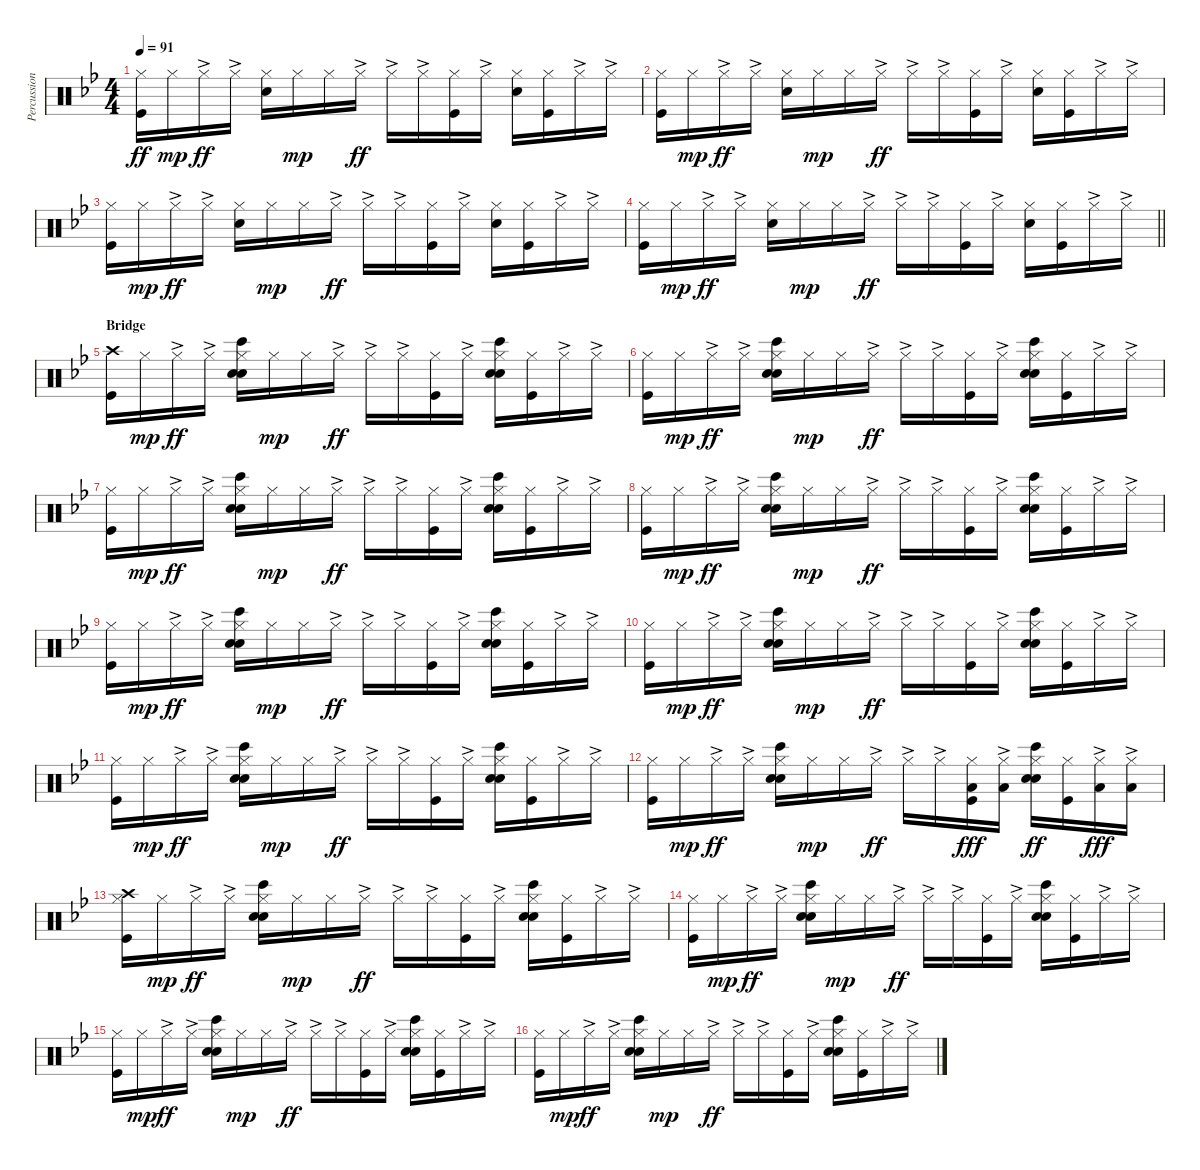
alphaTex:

\track ("Percussion" "Percussion") {instrument percussion}
\staff {score}
\articulation defaults
\ts (4 4)
\tempo 91
\clef neutral
\ks bb
("Hi-Hat (closed)" "Kick (hit)").16{dy ff} "Hi-Hat (closed)".16{dy mp} "Hi-Hat (closed)"{ac}.16{dy ff} "Hi-Hat (closed)"{ac}.16 ("Hi-Hat (closed)" "Snare (hit) 2").16 "Hi-Hat (closed)".16{dy mp} "Hi-Hat (closed)".16 "Hi-Hat (closed)"{ac}.16{dy ff} "Hi-Hat (closed)"{ac}.16 "Hi-Hat (closed)"{ac}.16 ("Hi-Hat (closed)" "Kick (hit)").16 "Hi-Hat (closed)"{ac}.16 ("Hi-Hat (closed)" "Snare (hit) 2").16 ("Hi-Hat (closed)" "Kick (hit)").16 "Hi-Hat (closed)"{ac}.16 "Hi-Hat (closed)"{ac}.16 |
("Hi-Hat (closed)" "Kick (hit)").16 "Hi-Hat (closed)".16{dy mp} "Hi-Hat (closed)"{ac}.16{dy ff} "Hi-Hat (closed)"{ac}.16 ("Hi-Hat (closed)" "Snare (hit) 2").16 "Hi-Hat (closed)".16{dy mp} "Hi-Hat (closed)".16 "Hi-Hat (closed)"{ac}.16{dy ff} "Hi-Hat (closed)"{ac}.16 "Hi-Hat (closed)"{ac}.16 ("Hi-Hat (closed)" "Kick (hit)").16 "Hi-Hat (closed)"{ac}.16 ("Hi-Hat (closed)" "Snare (hit) 2").16 ("Hi-Hat (closed)" "Kick (hit)").16 "Hi-Hat (closed)"{ac}.16 "Hi-Hat (closed)"{ac}.16 |
("Hi-Hat (closed)" "Kick (hit)").16 "Hi-Hat (closed)".16{dy mp} "Hi-Hat (closed)"{ac}.16{dy ff} "Hi-Hat (closed)"{ac}.16 ("Hi-Hat (closed)" "Snare (hit) 2").16 "Hi-Hat (closed)".16{dy mp} "Hi-Hat (closed)".16 "Hi-Hat (closed)"{ac}.16{dy ff} "Hi-Hat (closed)"{ac}.16 "Hi-Hat (closed)"{ac}.16 ("Hi-Hat (closed)" "Kick (hit)").16 "Hi-Hat (closed)"{ac}.16 ("Hi-Hat (closed)" "Snare (hit) 2").16 ("Hi-Hat (closed)" "Kick (hit)").16 "Hi-Hat (closed)"{ac}.16 "Hi-Hat (closed)"{ac}.16 |
\barLineRight lightlight
("Hi-Hat (closed)" "Kick (hit)").16 "Hi-Hat (closed)".16{dy mp} "Hi-Hat (closed)"{ac}.16{dy ff} "Hi-Hat (closed)"{ac}.16 ("Hi-Hat (closed)" "Snare (hit) 2").16 "Hi-Hat (closed)".16{dy mp} "Hi-Hat (closed)".16 "Hi-Hat (closed)"{ac}.16{dy ff} "Hi-Hat (closed)"{ac}.16 "Hi-Hat (closed)"{ac}.16 ("Hi-Hat (closed)" "Kick (hit)").16 "Hi-Hat (closed)"{ac}.16 ("Hi-Hat (closed)" "Snare (hit) 2").16 ("Hi-Hat (closed)" "Kick (hit)").16 "Hi-Hat (closed)"{ac}.16 "Hi-Hat (closed)"{ac}.16 |
\section ("" "Bridge")
("Crash high (hit)" "Kick (hit)").16 "Hi-Hat (closed)".16{dy mp} "Hi-Hat (closed)"{ac}.16{dy ff} "Hi-Hat (closed)"{ac}.16 ("Hi-Hat (closed)" "Snare (hit) 2" "Bongo High (hit)" "Hand Clap (hit)").16 "Hi-Hat (closed)".16{dy mp} "Hi-Hat (closed)".16 "Hi-Hat (closed)"{ac}.16{dy ff} "Hi-Hat (closed)"{ac}.16 "Hi-Hat (closed)"{ac}.16 ("Hi-Hat (closed)" "Kick (hit)").16 "Hi-Hat (closed)"{ac}.16 ("Hi-Hat (closed)" "Snare (hit) 2" "Bongo High (hit)" "Hand Clap (hit)").16 ("Hi-Hat (closed)" "Kick (hit)").16 "Hi-Hat (closed)"{ac}.16 "Hi-Hat (closed)"{ac}.16 |
("Hi-Hat (closed)" "Kick (hit)").16 "Hi-Hat (closed)".16{dy mp} "Hi-Hat (closed)"{ac}.16{dy ff} "Hi-Hat (closed)"{ac}.16 ("Hi-Hat (closed)" "Snare (hit) 2" "Bongo High (hit)" "Hand Clap (hit)").16 "Hi-Hat (closed)".16{dy mp} "Hi-Hat (closed)".16 "Hi-Hat (closed)"{ac}.16{dy ff} "Hi-Hat (closed)"{ac}.16 "Hi-Hat (closed)"{ac}.16 ("Hi-Hat (closed)" "Kick (hit)").16 "Hi-Hat (closed)"{ac}.16 ("Hi-Hat (closed)" "Snare (hit) 2" "Bongo High (hit)" "Hand Clap (hit)").16 ("Hi-Hat (closed)" "Kick (hit)").16 "Hi-Hat (closed)"{ac}.16 "Hi-Hat (closed)"{ac}.16 |
("Hi-Hat (closed)" "Kick (hit)").16 "Hi-Hat (closed)".16{dy mp} "Hi-Hat (closed)"{ac}.16{dy ff} "Hi-Hat (closed)"{ac}.16 ("Hi-Hat (closed)" "Snare (hit) 2" "Bongo High (hit)" "Hand Clap (hit)").16 "Hi-Hat (closed)".16{dy mp} "Hi-Hat (closed)".16 "Hi-Hat (closed)"{ac}.16{dy ff} "Hi-Hat (closed)"{ac}.16 "Hi-Hat (closed)"{ac}.16 ("Hi-Hat (closed)" "Kick (hit)").16 "Hi-Hat (closed)"{ac}.16 ("Hi-Hat (closed)" "Snare (hit) 2" "Bongo High (hit)" "Hand Clap (hit)").16 ("Hi-Hat (closed)" "Kick (hit)").16 "Hi-Hat (closed)"{ac}.16 "Hi-Hat (closed)"{ac}.16 |
("Hi-Hat (closed)" "Kick (hit)").16 "Hi-Hat (closed)".16{dy mp} "Hi-Hat (closed)"{ac}.16{dy ff} "Hi-Hat (closed)"{ac}.16 ("Hi-Hat (closed)" "Snare (hit) 2" "Bongo High (hit)" "Hand Clap (hit)").16 "Hi-Hat (closed)".16{dy mp} "Hi-Hat (closed)".16 "Hi-Hat (closed)"{ac}.16{dy ff} "Hi-Hat (closed)"{ac}.16 "Hi-Hat (closed)"{ac}.16 ("Hi-Hat (closed)" "Kick (hit)").16 "Hi-Hat (closed)"{ac}.16 ("Hi-Hat (closed)" "Snare (hit) 2" "Bongo High (hit)" "Hand Clap (hit)").16 ("Hi-Hat (closed)" "Kick (hit)").16 "Hi-Hat (closed)"{ac}.16 "Hi-Hat (closed)"{ac}.16 |
("Hi-Hat (closed)" "Kick (hit)").16 "Hi-Hat (closed)".16{dy mp} "Hi-Hat (closed)"{ac}.16{dy ff} "Hi-Hat (closed)"{ac}.16 ("Hi-Hat (closed)" "Snare (hit) 2" "Bongo High (hit)" "Hand Clap (hit)").16 "Hi-Hat (closed)".16{dy mp} "Hi-Hat (closed)".16 "Hi-Hat (closed)"{ac}.16{dy ff} "Hi-Hat (closed)"{ac}.16 "Hi-Hat (closed)"{ac}.16 ("Hi-Hat (closed)" "Kick (hit)").16 "Hi-Hat (closed)"{ac}.16 ("Hi-Hat (closed)" "Snare (hit) 2" "Bongo High (hit)" "Hand Clap (hit)").16 ("Hi-Hat (closed)" "Kick (hit)").16 "Hi-Hat (closed)"{ac}.16 "Hi-Hat (closed)"{ac}.16 |
("Hi-Hat (closed)" "Kick (hit)").16 "Hi-Hat (closed)".16{dy mp} "Hi-Hat (closed)"{ac}.16{dy ff} "Hi-Hat (closed)"{ac}.16 ("Hi-Hat (closed)" "Snare (hit) 2" "Bongo High (hit)" "Hand Clap (hit)").16 "Hi-Hat (closed)".16{dy mp} "Hi-Hat (closed)".16 "Hi-Hat (closed)"{ac}.16{dy ff} "Hi-Hat (closed)"{ac}.16 "Hi-Hat (closed)"{ac}.16 ("Hi-Hat (closed)" "Kick (hit)").16 "Hi-Hat (closed)"{ac}.16 ("Hi-Hat (closed)" "Snare (hit) 2" "Bongo High (hit)" "Hand Clap (hit)").16 ("Hi-Hat (closed)" "Kick (hit)").16 "Hi-Hat (closed)"{ac}.16 "Hi-Hat (closed)"{ac}.16 |
("Hi-Hat (closed)" "Kick (hit)").16 "Hi-Hat (closed)".16{dy mp} "Hi-Hat (closed)"{ac}.16{dy ff} "Hi-Hat (closed)"{ac}.16 ("Hi-Hat (closed)" "Snare (hit) 2" "Bongo High (hit)" "Hand Clap (hit)").16 "Hi-Hat (closed)".16{dy mp} "Hi-Hat (closed)".16 "Hi-Hat (closed)"{ac}.16{dy ff} "Hi-Hat (closed)"{ac}.16 "Hi-Hat (closed)"{ac}.16 ("Hi-Hat (closed)" "Kick (hit)").16 "Hi-Hat (closed)"{ac}.16 ("Hi-Hat (closed)" "Snare (hit) 2" "Bongo High (hit)" "Hand Clap (hit)").16 ("Hi-Hat (closed)" "Kick (hit)").16 "Hi-Hat (closed)"{ac}.16 "Hi-Hat (closed)"{ac}.16 |
("Hi-Hat (closed)" "Kick (hit)").16 "Hi-Hat (closed)".16{dy mp} "Hi-Hat (closed)"{ac}.16{dy ff} "Hi-Hat (closed)"{ac}.16 ("Hi-Hat (closed)" "Snare (hit) 2" "Bongo High (hit)" "Hand Clap (hit)").16 "Hi-Hat (closed)".16{dy mp} "Hi-Hat (closed)".16 "Hi-Hat (closed)"{ac}.16{dy ff} "Hi-Hat (closed)"{ac}.16 "Hi-Hat (closed)"{ac}.16 ("Hi-Hat (closed)" "Kick (hit)" "Low Tom (hit)").16{dy fff} ("Hi-Hat (closed)"{ac} "Low Tom (hit)").16 ("Hi-Hat (closed)" "Snare (hit) 2" "Bongo High (hit)" "Hand Clap (hit)").16{dy ff} ("Hi-Hat (closed)" "Kick (hit)").16 ("Hi-Hat (closed)"{ac} "Low Tom (hit)").16{dy fff} ("Hi-Hat (closed)"{ac} "Low Tom (hit)").16 |
("Hi-Hat (closed)" "Kick (hit)" "Crash high (hit)").16 "Hi-Hat (closed)".16{dy mp} "Hi-Hat (closed)"{ac}.16{dy ff} "Hi-Hat (closed)"{ac}.16 ("Hi-Hat (closed)" "Snare (hit) 2" "Bongo High (hit)" "Hand Clap (hit)").16 "Hi-Hat (closed)".16{dy mp} "Hi-Hat (closed)".16 "Hi-Hat (closed)"{ac}.16{dy ff} "Hi-Hat (closed)"{ac}.16 "Hi-Hat (closed)"{ac}.16 ("Hi-Hat (closed)" "Kick (hit)").16 "Hi-Hat (closed)"{ac}.16 ("Hi-Hat (closed)" "Snare (hit) 2" "Bongo High (hit)" "Hand Clap (hit)").16 ("Hi-Hat (closed)" "Kick (hit)").16 "Hi-Hat (closed)"{ac}.16 "Hi-Hat (closed)"{ac}.16 |
("Hi-Hat (closed)" "Kick (hit)").16 "Hi-Hat (closed)".16{dy mp} "Hi-Hat (closed)"{ac}.16{dy ff} "Hi-Hat (closed)"{ac}.16 ("Hi-Hat (closed)" "Snare (hit) 2" "Bongo High (hit)" "Hand Clap (hit)").16 "Hi-Hat (closed)".16{dy mp} "Hi-Hat (closed)".16 "Hi-Hat (closed)"{ac}.16{dy ff} "Hi-Hat (closed)"{ac}.16 "Hi-Hat (closed)"{ac}.16 ("Hi-Hat (closed)" "Kick (hit)").16 "Hi-Hat (closed)"{ac}.16 ("Hi-Hat (closed)" "Snare (hit) 2" "Bongo High (hit)" "Hand Clap (hit)").16 ("Hi-Hat (closed)" "Kick (hit)").16 "Hi-Hat (closed)"{ac}.16 "Hi-Hat (closed)"{ac}.16 |
("Hi-Hat (closed)" "Kick (hit)").16 "Hi-Hat (closed)".16{dy mp} "Hi-Hat (closed)"{ac}.16{dy ff} "Hi-Hat (closed)"{ac}.16 ("Hi-Hat (closed)" "Snare (hit) 2" "Bongo High (hit)" "Hand Clap (hit)").16 "Hi-Hat (closed)".16{dy mp} "Hi-Hat (closed)".16 "Hi-Hat (closed)"{ac}.16{dy ff} "Hi-Hat (closed)"{ac}.16 "Hi-Hat (closed)"{ac}.16 ("Hi-Hat (closed)" "Kick (hit)").16 "Hi-Hat (closed)"{ac}.16 ("Hi-Hat (closed)" "Snare (hit) 2" "Bongo High (hit)" "Hand Clap (hit)").16 ("Hi-Hat (closed)" "Kick (hit)").16 "Hi-Hat (closed)"{ac}.16 "Hi-Hat (closed)"{ac}.16 |
("Hi-Hat (closed)" "Kick (hit)").16 "Hi-Hat (closed)".16{dy mp} "Hi-Hat (closed)"{ac}.16{dy ff} "Hi-Hat (closed)"{ac}.16 ("Hi-Hat (closed)" "Snare (hit) 2" "Bongo High (hit)" "Hand Clap (hit)").16 "Hi-Hat (closed)".16{dy mp} "Hi-Hat (closed)".16 "Hi-Hat (closed)"{ac}.16{dy ff} "Hi-Hat (closed)"{ac}.16 "Hi-Hat (closed)"{ac}.16 ("Hi-Hat (closed)" "Kick (hit)").16 "Hi-Hat (closed)"{ac}.16 ("Hi-Hat (closed)" "Snare (hit) 2" "Bongo High (hit)" "Hand Clap (hit)").16 ("Hi-Hat (closed)" "Kick (hit)").16 "Hi-Hat (closed)"{ac}.16 "Hi-Hat (closed)"{ac}.16
